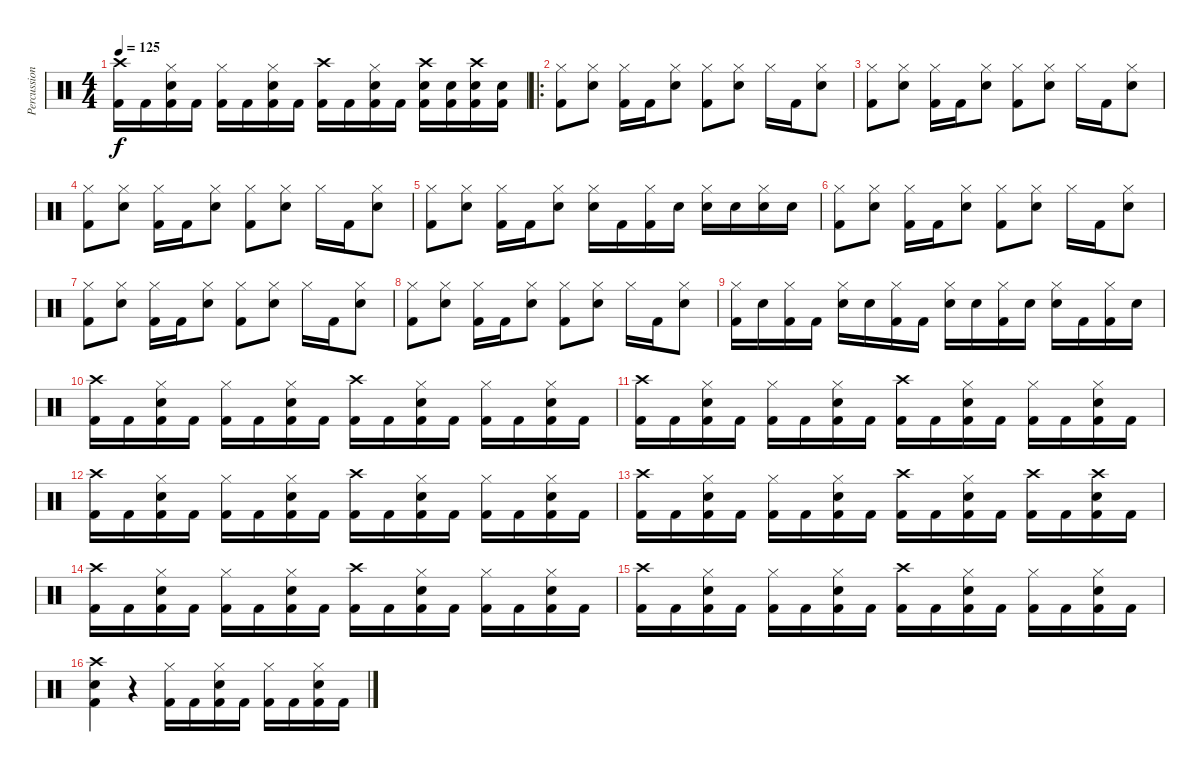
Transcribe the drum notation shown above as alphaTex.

\track ("Percussion" "Percussion") {instrument percussion}
\staff {score}
\articulation defaults
\ts (4 4)
\tempo 125
\clef neutral
\ks c
("Crash high (hit)" "Kick (hit) 2").16{dy f} "Kick (hit) 2".16 ("Hi-Hat (closed)" "Snare (hit) 2" "Kick (hit) 2").16 "Kick (hit) 2".16 ("Hi-Hat (closed)" "Kick (hit) 2").16 "Kick (hit) 2".16 ("Hi-Hat (closed)" "Snare (hit) 2" "Kick (hit) 2").16 "Kick (hit) 2".16 ("Crash high (hit)" "Kick (hit) 2").16 "Kick (hit) 2".16 ("Hi-Hat (closed)" "Snare (hit) 2" "Kick (hit) 2").16 "Kick (hit) 2".16 ("Crash high (hit)" "Snare (hit) 2" "Kick (hit) 2").16 ("Snare (hit) 2" "Kick (hit) 2").16 ("Crash high (hit)" "Snare (hit) 2" "Kick (hit) 2").16 ("Snare (hit) 2" "Kick (hit) 2").16 |
\ro
("Hi-Hat (closed)" "Kick (hit) 2").8 ("Hi-Hat (closed)" "Snare (hit) 2").8 ("Hi-Hat (closed)" "Kick (hit) 2").16 "Kick (hit) 2".16 ("Hi-Hat (closed)" "Snare (hit) 2").8 ("Hi-Hat (closed)" "Kick (hit) 2").8 ("Hi-Hat (closed)" "Snare (hit) 2").8 "Hi-Hat (closed)".16 "Kick (hit) 2".16 ("Hi-Hat (closed)" "Snare (hit) 2").8 |
("Hi-Hat (closed)" "Kick (hit) 2").8 ("Hi-Hat (closed)" "Snare (hit) 2").8 ("Hi-Hat (closed)" "Kick (hit) 2").16 "Kick (hit) 2".16 ("Hi-Hat (closed)" "Snare (hit) 2").8 ("Hi-Hat (closed)" "Kick (hit) 2").8 ("Hi-Hat (closed)" "Snare (hit) 2").8 "Hi-Hat (closed)".16 "Kick (hit) 2".16 ("Hi-Hat (closed)" "Snare (hit) 2").8 |
("Hi-Hat (closed)" "Kick (hit) 2").8 ("Hi-Hat (closed)" "Snare (hit) 2").8 ("Hi-Hat (closed)" "Kick (hit) 2").16 "Kick (hit) 2".16 ("Hi-Hat (closed)" "Snare (hit) 2").8 ("Hi-Hat (closed)" "Kick (hit) 2").8 ("Hi-Hat (closed)" "Snare (hit) 2").8 "Hi-Hat (closed)".16 "Kick (hit) 2".16 ("Hi-Hat (closed)" "Snare (hit) 2").8 |
("Hi-Hat (closed)" "Kick (hit) 2").8 ("Hi-Hat (closed)" "Snare (hit) 2").8 ("Hi-Hat (closed)" "Kick (hit) 2").16 "Kick (hit) 2".16 ("Hi-Hat (closed)" "Snare (hit) 2").8 ("Hi-Hat (closed)" "Snare (hit) 2").16 "Kick (hit) 2".16 ("Hi-Hat (closed)" "Kick (hit) 2").16 "Snare (hit) 2".16 ("Hi-Hat (closed)" "Snare (hit) 2").16 "Snare (hit) 2".16 ("Hi-Hat (closed)" "Snare (hit) 2").16 "Snare (hit) 2".16 |
("Hi-Hat (closed)" "Kick (hit) 2").8 ("Hi-Hat (closed)" "Snare (hit) 2").8 ("Hi-Hat (closed)" "Kick (hit) 2").16 "Kick (hit) 2".16 ("Hi-Hat (closed)" "Snare (hit) 2").8 ("Hi-Hat (closed)" "Kick (hit) 2").8 ("Hi-Hat (closed)" "Snare (hit) 2").8 "Hi-Hat (closed)".16 "Kick (hit) 2".16 ("Hi-Hat (closed)" "Snare (hit) 2").8 |
("Hi-Hat (closed)" "Kick (hit) 2").8 ("Hi-Hat (closed)" "Snare (hit) 2").8 ("Hi-Hat (closed)" "Kick (hit) 2").16 "Kick (hit) 2".16 ("Hi-Hat (closed)" "Snare (hit) 2").8 ("Hi-Hat (closed)" "Kick (hit) 2").8 ("Hi-Hat (closed)" "Snare (hit) 2").8 "Hi-Hat (closed)".16 "Kick (hit) 2".16 ("Hi-Hat (closed)" "Snare (hit) 2").8 |
("Hi-Hat (closed)" "Kick (hit) 2").8 ("Hi-Hat (closed)" "Snare (hit) 2").8 ("Hi-Hat (closed)" "Kick (hit) 2").16 "Kick (hit) 2".16 ("Hi-Hat (closed)" "Snare (hit) 2").8 ("Hi-Hat (closed)" "Kick (hit) 2").8 ("Hi-Hat (closed)" "Snare (hit) 2").8 "Hi-Hat (closed)".16 "Kick (hit) 2".16 ("Hi-Hat (closed)" "Snare (hit) 2").8 |
("Hi-Hat (closed)" "Kick (hit) 2").16 "Snare (hit) 2".16 ("Hi-Hat (closed)" "Kick (hit) 2").16 "Kick (hit) 2".16 ("Hi-Hat (closed)" "Snare (hit) 2").16 "Snare (hit) 2".16 ("Hi-Hat (closed)" "Kick (hit) 2").16 "Kick (hit) 2".16 ("Hi-Hat (closed)" "Snare (hit) 2").16 "Snare (hit) 2".16 ("Hi-Hat (closed)" "Kick (hit) 2").16 "Snare (hit) 2".16 ("Hi-Hat (closed)" "Snare (hit) 2").16 "Kick (hit) 2".16 ("Hi-Hat (closed)" "Kick (hit) 2").16 "Snare (hit) 2".16 |
("Crash high (hit)" "Kick (hit) 2").16 "Kick (hit) 2".16 ("Hi-Hat (closed)" "Snare (hit) 2" "Kick (hit) 2").16 "Kick (hit) 2".16 ("Hi-Hat (closed)" "Kick (hit) 2").16 "Kick (hit) 2".16 ("Hi-Hat (closed)" "Snare (hit) 2" "Kick (hit) 2").16 "Kick (hit) 2".16 ("Crash high (hit)" "Kick (hit) 2").16 "Kick (hit) 2".16 ("Hi-Hat (closed)" "Snare (hit) 2" "Kick (hit) 2").16 "Kick (hit) 2".16 ("Hi-Hat (closed)" "Kick (hit) 2").16 "Kick (hit) 2".16 ("Hi-Hat (closed)" "Snare (hit) 2" "Kick (hit) 2").16 "Kick (hit) 2".16 |
("Crash high (hit)" "Kick (hit) 2").16 "Kick (hit) 2".16 ("Hi-Hat (closed)" "Snare (hit) 2" "Kick (hit) 2").16 "Kick (hit) 2".16 ("Hi-Hat (closed)" "Kick (hit) 2").16 "Kick (hit) 2".16 ("Hi-Hat (closed)" "Snare (hit) 2" "Kick (hit) 2").16 "Kick (hit) 2".16 ("Crash high (hit)" "Kick (hit) 2").16 "Kick (hit) 2".16 ("Hi-Hat (closed)" "Snare (hit) 2" "Kick (hit) 2").16 "Kick (hit) 2".16 ("Hi-Hat (closed)" "Kick (hit) 2").16 "Kick (hit) 2".16 ("Hi-Hat (closed)" "Snare (hit) 2" "Kick (hit) 2").16 "Kick (hit) 2".16 |
("Crash high (hit)" "Kick (hit) 2").16 "Kick (hit) 2".16 ("Hi-Hat (closed)" "Snare (hit) 2" "Kick (hit) 2").16 "Kick (hit) 2".16 ("Hi-Hat (closed)" "Kick (hit) 2").16 "Kick (hit) 2".16 ("Hi-Hat (closed)" "Snare (hit) 2" "Kick (hit) 2").16 "Kick (hit) 2".16 ("Crash high (hit)" "Kick (hit) 2").16 "Kick (hit) 2".16 ("Hi-Hat (closed)" "Snare (hit) 2" "Kick (hit) 2").16 "Kick (hit) 2".16 ("Hi-Hat (closed)" "Kick (hit) 2").16 "Kick (hit) 2".16 ("Hi-Hat (closed)" "Snare (hit) 2" "Kick (hit) 2").16 "Kick (hit) 2".16 |
("Crash high (hit)" "Kick (hit) 2").16 "Kick (hit) 2".16 ("Hi-Hat (closed)" "Snare (hit) 2" "Kick (hit) 2").16 "Kick (hit) 2".16 ("Hi-Hat (closed)" "Kick (hit) 2").16 "Kick (hit) 2".16 ("Hi-Hat (closed)" "Snare (hit) 2" "Kick (hit) 2").16 "Kick (hit) 2".16 ("Crash high (hit)" "Kick (hit) 2").16 "Kick (hit) 2".16 ("Hi-Hat (closed)" "Snare (hit) 2" "Kick (hit) 2").16 "Kick (hit) 2".16 ("Crash high (hit)" "Kick (hit) 2").16 "Kick (hit) 2".16 ("Crash high (hit)" "Snare (hit) 2" "Kick (hit) 2").16 "Kick (hit) 2".16 |
("Crash high (hit)" "Kick (hit) 2").16 "Kick (hit) 2".16 ("Hi-Hat (closed)" "Snare (hit) 2" "Kick (hit) 2").16 "Kick (hit) 2".16 ("Hi-Hat (closed)" "Kick (hit) 2").16 "Kick (hit) 2".16 ("Hi-Hat (closed)" "Snare (hit) 2" "Kick (hit) 2").16 "Kick (hit) 2".16 ("Crash high (hit)" "Kick (hit) 2").16 "Kick (hit) 2".16 ("Hi-Hat (closed)" "Snare (hit) 2" "Kick (hit) 2").16 "Kick (hit) 2".16 ("Hi-Hat (closed)" "Kick (hit) 2").16 "Kick (hit) 2".16 ("Hi-Hat (closed)" "Snare (hit) 2" "Kick (hit) 2").16 "Kick (hit) 2".16 |
("Crash high (hit)" "Kick (hit) 2").16 "Kick (hit) 2".16 ("Hi-Hat (closed)" "Snare (hit) 2" "Kick (hit) 2").16 "Kick (hit) 2".16 ("Hi-Hat (closed)" "Kick (hit) 2").16 "Kick (hit) 2".16 ("Hi-Hat (closed)" "Snare (hit) 2" "Kick (hit) 2").16 "Kick (hit) 2".16 ("Crash high (hit)" "Kick (hit) 2").16 "Kick (hit) 2".16 ("Hi-Hat (closed)" "Snare (hit) 2" "Kick (hit) 2").16 "Kick (hit) 2".16 ("Hi-Hat (closed)" "Kick (hit) 2").16 "Kick (hit) 2".16 ("Hi-Hat (closed)" "Snare (hit) 2" "Kick (hit) 2").16 "Kick (hit) 2".16 |
("Crash high (hit)" "Snare (hit) 2" "Kick (hit) 2").4 r.4 ("Hi-Hat (closed)" "Kick (hit) 2").16 "Kick (hit) 2".16 ("Hi-Hat (closed)" "Snare (hit) 2" "Kick (hit) 2").16 "Kick (hit) 2".16 ("Hi-Hat (closed)" "Kick (hit) 2").16 "Kick (hit) 2".16 ("Hi-Hat (closed)" "Snare (hit) 2" "Kick (hit) 2").16 "Kick (hit) 2".16
